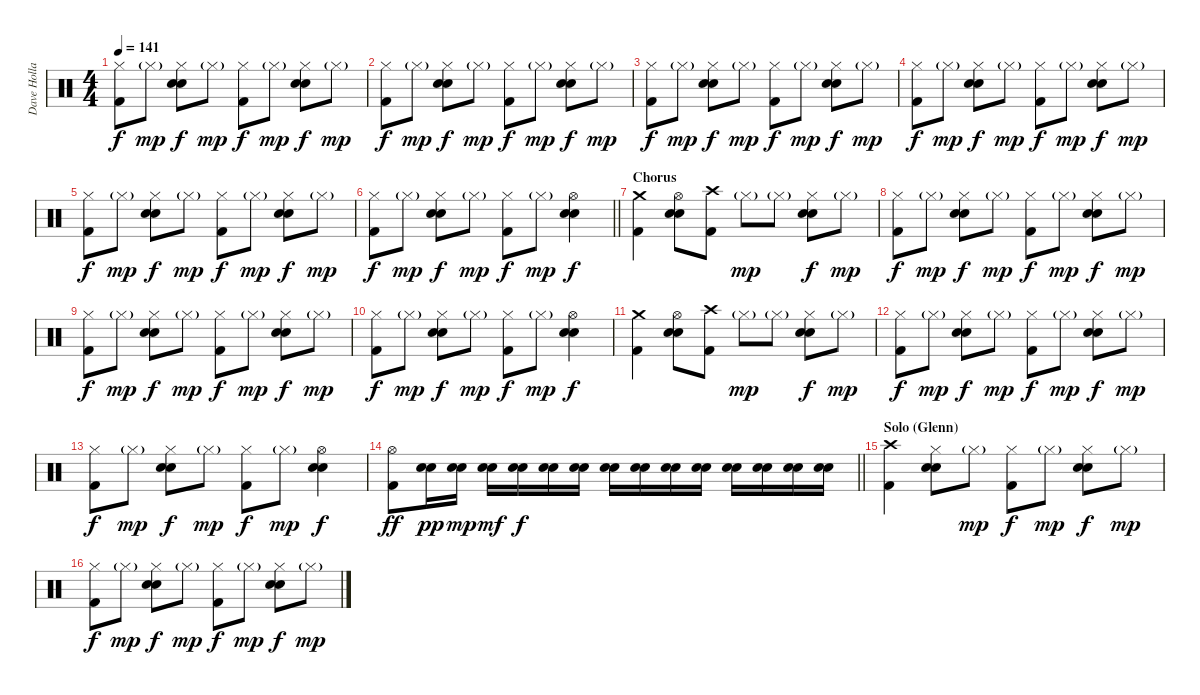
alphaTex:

\track ("Dave Holland" "Dave Holla") {instrument percussion}
\staff {score}
\articulation defaults
\ts (4 4)
\tempo 141
\clef neutral
\ks c
("Hi-Hat (closed)" "Kick (hit) 2").8{dy f} "Hi-Hat (closed)"{g}.8{dy mp} ("Hi-Hat (closed)" "Electric Snare (hit)" "Snare (hit) 2").8{dy f} "Hi-Hat (closed)"{g}.8{dy mp} ("Hi-Hat (closed)" "Kick (hit) 2").8{dy f} "Hi-Hat (closed)"{g}.8{dy mp} ("Hi-Hat (closed)" "Electric Snare (hit)" "Snare (hit) 2").8{dy f} "Hi-Hat (closed)"{g}.8{dy mp} |
("Hi-Hat (closed)" "Kick (hit) 2").8{dy f} "Hi-Hat (closed)"{g}.8{dy mp} ("Hi-Hat (closed)" "Electric Snare (hit)" "Snare (hit) 2").8{dy f} "Hi-Hat (closed)"{g}.8{dy mp} ("Hi-Hat (closed)" "Kick (hit) 2").8{dy f} "Hi-Hat (closed)"{g}.8{dy mp} ("Hi-Hat (closed)" "Electric Snare (hit)" "Snare (hit) 2").8{dy f} "Hi-Hat (closed)"{g}.8{dy mp} |
("Hi-Hat (closed)" "Kick (hit) 2").8{dy f} "Hi-Hat (closed)"{g}.8{dy mp} ("Hi-Hat (closed)" "Electric Snare (hit)" "Snare (hit) 2").8{dy f} "Hi-Hat (closed)"{g}.8{dy mp} ("Hi-Hat (closed)" "Kick (hit) 2").8{dy f} "Hi-Hat (closed)"{g}.8{dy mp} ("Hi-Hat (closed)" "Electric Snare (hit)" "Snare (hit) 2").8{dy f} "Hi-Hat (closed)"{g}.8{dy mp} |
("Hi-Hat (closed)" "Kick (hit) 2").8{dy f} "Hi-Hat (closed)"{g}.8{dy mp} ("Hi-Hat (closed)" "Electric Snare (hit)" "Snare (hit) 2").8{dy f} "Hi-Hat (closed)"{g}.8{dy mp} ("Hi-Hat (closed)" "Kick (hit) 2").8{dy f} "Hi-Hat (closed)"{g}.8{dy mp} ("Hi-Hat (closed)" "Electric Snare (hit)" "Snare (hit) 2").8{dy f} "Hi-Hat (closed)"{g}.8{dy mp} |
("Hi-Hat (closed)" "Kick (hit) 2").8{dy f} "Hi-Hat (closed)"{g}.8{dy mp} ("Hi-Hat (closed)" "Electric Snare (hit)" "Snare (hit) 2").8{dy f} "Hi-Hat (closed)"{g}.8{dy mp} ("Hi-Hat (closed)" "Kick (hit) 2").8{dy f} "Hi-Hat (closed)"{g}.8{dy mp} ("Hi-Hat (closed)" "Electric Snare (hit)" "Snare (hit) 2").8{dy f} "Hi-Hat (closed)"{g}.8{dy mp} |
\barLineRight lightlight
("Hi-Hat (closed)" "Kick (hit) 2").8{dy f} "Hi-Hat (closed)"{g}.8{dy mp} ("Hi-Hat (closed)" "Electric Snare (hit)" "Snare (hit) 2").8{dy f} "Hi-Hat (closed)"{g}.8{dy mp} ("Hi-Hat (closed)" "Kick (hit) 2").8{dy f} "Hi-Hat (closed)"{g}.8{dy mp} ("Hi-Hat (open)" "Electric Snare (hit)" "Snare (hit) 2").4{dy f} |
\section ("" "Chorus")
("Crash medium (hit)" "Kick (hit) 2").4 ("Hi-Hat (open)" "Electric Snare (hit)" "Snare (hit) 2").8 ("Crash high (hit)" "Kick (hit) 2").8 "Hi-Hat (closed)"{g}.8{dy mp} "Hi-Hat (closed)"{g}.8 ("Hi-Hat (closed)" "Electric Snare (hit)" "Snare (hit) 2").8{dy f} "Hi-Hat (closed)"{g}.8{dy mp} |
("Hi-Hat (closed)" "Kick (hit) 2").8{dy f} "Hi-Hat (closed)"{g}.8{dy mp} ("Hi-Hat (closed)" "Electric Snare (hit)" "Snare (hit) 2").8{dy f} "Hi-Hat (closed)"{g}.8{dy mp} ("Hi-Hat (closed)" "Kick (hit) 2").8{dy f} "Hi-Hat (closed)"{g}.8{dy mp} ("Hi-Hat (closed)" "Electric Snare (hit)" "Snare (hit) 2").8{dy f} "Hi-Hat (closed)"{g}.8{dy mp} |
("Hi-Hat (closed)" "Kick (hit) 2").8{dy f} "Hi-Hat (closed)"{g}.8{dy mp} ("Hi-Hat (closed)" "Electric Snare (hit)" "Snare (hit) 2").8{dy f} "Hi-Hat (closed)"{g}.8{dy mp} ("Hi-Hat (closed)" "Kick (hit) 2").8{dy f} "Hi-Hat (closed)"{g}.8{dy mp} ("Hi-Hat (closed)" "Electric Snare (hit)" "Snare (hit) 2").8{dy f} "Hi-Hat (closed)"{g}.8{dy mp} |
("Hi-Hat (closed)" "Kick (hit) 2").8{dy f} "Hi-Hat (closed)"{g}.8{dy mp} ("Hi-Hat (closed)" "Electric Snare (hit)" "Snare (hit) 2").8{dy f} "Hi-Hat (closed)"{g}.8{dy mp} ("Hi-Hat (closed)" "Kick (hit) 2").8{dy f} "Hi-Hat (closed)"{g}.8{dy mp} ("Hi-Hat (open)" "Electric Snare (hit)" "Snare (hit) 2").4{dy f} |
("Crash medium (hit)" "Kick (hit) 2").4 ("Hi-Hat (open)" "Electric Snare (hit)" "Snare (hit) 2").8 ("Crash high (hit)" "Kick (hit) 2").8 "Hi-Hat (closed)"{g}.8{dy mp} "Hi-Hat (closed)"{g}.8 ("Hi-Hat (closed)" "Electric Snare (hit)" "Snare (hit) 2").8{dy f} "Hi-Hat (closed)"{g}.8{dy mp} |
("Hi-Hat (closed)" "Kick (hit) 2").8{dy f} "Hi-Hat (closed)"{g}.8{dy mp} ("Hi-Hat (closed)" "Electric Snare (hit)" "Snare (hit) 2").8{dy f} "Hi-Hat (closed)"{g}.8{dy mp} ("Hi-Hat (closed)" "Kick (hit) 2").8{dy f} "Hi-Hat (closed)"{g}.8{dy mp} ("Hi-Hat (closed)" "Electric Snare (hit)" "Snare (hit) 2").8{dy f} "Hi-Hat (closed)"{g}.8{dy mp} |
("Hi-Hat (closed)" "Kick (hit) 2").8{dy f} "Hi-Hat (closed)"{g}.8{dy mp} ("Hi-Hat (closed)" "Electric Snare (hit)" "Snare (hit) 2").8{dy f} "Hi-Hat (closed)"{g}.8{dy mp} ("Hi-Hat (closed)" "Kick (hit) 2").8{dy f} "Hi-Hat (closed)"{g}.8{dy mp} ("Hi-Hat (open)" "Electric Snare (hit)" "Snare (hit) 2").4{dy f} |
\barLineRight lightlight
("Hi-Hat (open)" "Kick (hit) 2").8{dy ff} ("Electric Snare (hit)" "Snare (hit) 2").16{dy pp} ("Electric Snare (hit)" "Snare (hit) 2").16{dy mp} ("Electric Snare (hit)" "Snare (hit) 2").16{dy mf} ("Electric Snare (hit)" "Snare (hit) 2").16{dy f} ("Electric Snare (hit)" "Snare (hit) 2").16 ("Electric Snare (hit)" "Snare (hit) 2").16 ("Electric Snare (hit)" "Snare (hit) 2").16 ("Electric Snare (hit)" "Snare (hit) 2").16 ("Electric Snare (hit)" "Snare (hit) 2").16 ("Electric Snare (hit)" "Snare (hit) 2").16 ("Electric Snare (hit)" "Snare (hit) 2").16 ("Electric Snare (hit)" "Snare (hit) 2").16 ("Electric Snare (hit)" "Snare (hit) 2").16 ("Electric Snare (hit)" "Snare (hit) 2").16 |
\section ("" "Solo (Glenn)")
("Crash high (hit)" "Kick (hit) 2").4 ("Hi-Hat (closed)" "Electric Snare (hit)" "Snare (hit) 2").8 "Hi-Hat (closed)"{g}.8{dy mp} ("Hi-Hat (closed)" "Kick (hit) 2").8{dy f} "Hi-Hat (closed)"{g}.8{dy mp} ("Hi-Hat (closed)" "Electric Snare (hit)" "Snare (hit) 2").8{dy f} "Hi-Hat (closed)"{g}.8{dy mp} |
("Hi-Hat (closed)" "Kick (hit) 2").8{dy f} "Hi-Hat (closed)"{g}.8{dy mp} ("Hi-Hat (closed)" "Electric Snare (hit)" "Snare (hit) 2").8{dy f} "Hi-Hat (closed)"{g}.8{dy mp} ("Hi-Hat (closed)" "Kick (hit) 2").8{dy f} "Hi-Hat (closed)"{g}.8{dy mp} ("Hi-Hat (closed)" "Electric Snare (hit)" "Snare (hit) 2").8{dy f} "Hi-Hat (closed)"{g}.8{dy mp}
